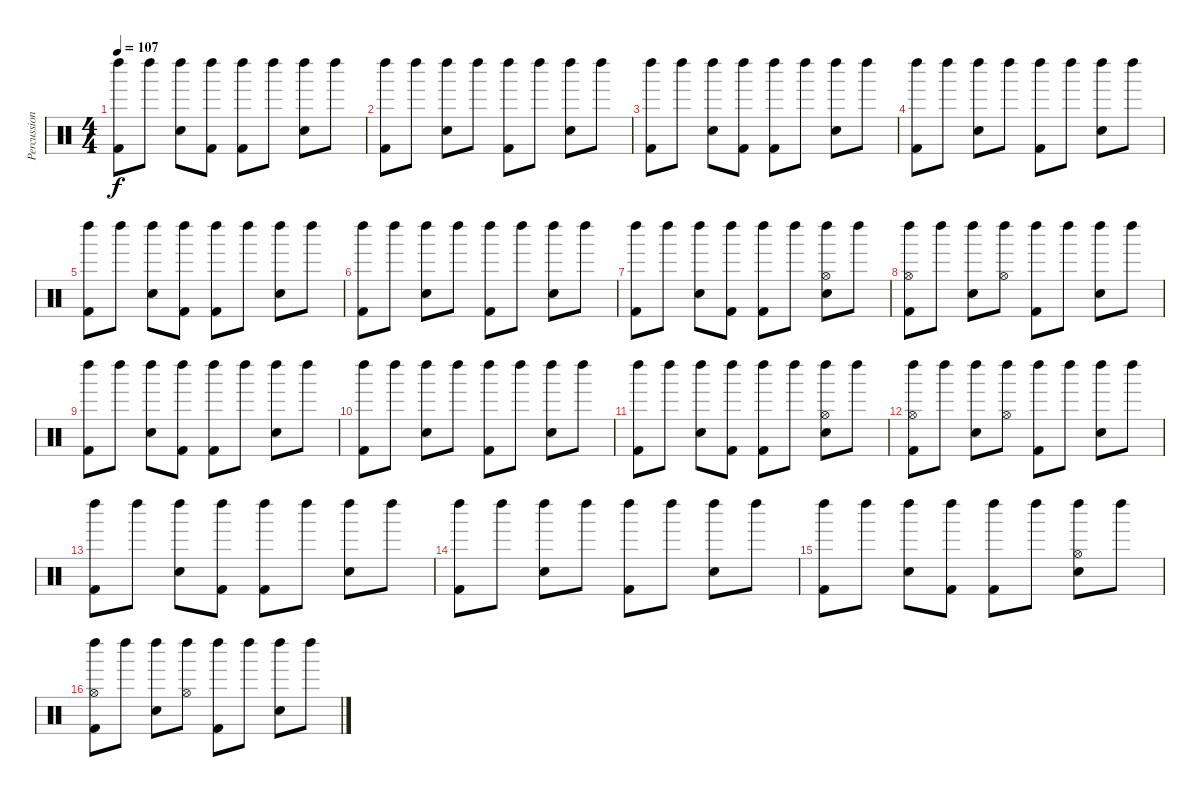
\track ("Percussion" "Percussion") {instrument percussion}
\staff {score}
\articulation defaults
\ts (4 4)
\tempo 107
\clef neutral
\ks c
("Kick (hit) 2" "Left Maraca (hit)").8{dy f} "Left Maraca (hit)".8 ("Snare (hit) 2" "Left Maraca (hit)").8 ("Kick (hit) 2" "Left Maraca (hit)").8 ("Kick (hit) 2" "Left Maraca (hit)").8 "Left Maraca (hit)".8 ("Snare (hit) 2" "Left Maraca (hit)").8 "Left Maraca (hit)".8 |
("Kick (hit) 2" "Left Maraca (hit)").8 "Left Maraca (hit)".8 ("Snare (hit) 2" "Left Maraca (hit)").8 "Left Maraca (hit)".8 ("Kick (hit) 2" "Left Maraca (hit)").8 "Left Maraca (hit)".8 ("Snare (hit) 2" "Left Maraca (hit)").8 "Left Maraca (hit)".8 |
("Kick (hit) 2" "Left Maraca (hit)").8 "Left Maraca (hit)".8 ("Snare (hit) 2" "Left Maraca (hit)").8 ("Kick (hit) 2" "Left Maraca (hit)").8 ("Kick (hit) 2" "Left Maraca (hit)").8 "Left Maraca (hit)".8 ("Snare (hit) 2" "Left Maraca (hit)").8 "Left Maraca (hit)".8 |
("Kick (hit) 2" "Left Maraca (hit)").8 "Left Maraca (hit)".8 ("Snare (hit) 2" "Left Maraca (hit)").8 "Left Maraca (hit)".8 ("Kick (hit) 2" "Left Maraca (hit)").8 "Left Maraca (hit)".8 ("Snare (hit) 2" "Left Maraca (hit)").8 "Left Maraca (hit)".8 |
("Kick (hit) 2" "Left Maraca (hit)").8 "Left Maraca (hit)".8 ("Snare (hit) 2" "Left Maraca (hit)").8 ("Kick (hit) 2" "Left Maraca (hit)").8 ("Kick (hit) 2" "Left Maraca (hit)").8 "Left Maraca (hit)".8 ("Snare (hit) 2" "Left Maraca (hit)").8 "Left Maraca (hit)".8 |
("Kick (hit) 2" "Left Maraca (hit)").8 "Left Maraca (hit)".8 ("Snare (hit) 2" "Left Maraca (hit)").8 "Left Maraca (hit)".8 ("Kick (hit) 2" "Left Maraca (hit)").8 "Left Maraca (hit)".8 ("Snare (hit) 2" "Left Maraca (hit)").8 "Left Maraca (hit)".8 |
("Kick (hit) 2" "Left Maraca (hit)").8 "Left Maraca (hit)".8 ("Snare (hit) 2" "Left Maraca (hit)").8 ("Kick (hit) 2" "Left Maraca (hit)").8 ("Kick (hit) 2" "Left Maraca (hit)").8 "Left Maraca (hit)".8 ("Snare (hit) 2" "Left Maraca (hit)" "Hi-Hat (open)").8 "Left Maraca (hit)".8 |
("Kick (hit) 2" "Left Maraca (hit)" "Hi-Hat (open)").8 "Left Maraca (hit)".8 ("Snare (hit) 2" "Left Maraca (hit)").8 ("Left Maraca (hit)" "Hi-Hat (open)").8 ("Kick (hit) 2" "Left Maraca (hit)").8 "Left Maraca (hit)".8 ("Snare (hit) 2" "Left Maraca (hit)").8 "Left Maraca (hit)".8 |
("Kick (hit) 2" "Left Maraca (hit)").8 "Left Maraca (hit)".8 ("Snare (hit) 2" "Left Maraca (hit)").8 ("Kick (hit) 2" "Left Maraca (hit)").8 ("Kick (hit) 2" "Left Maraca (hit)").8 "Left Maraca (hit)".8 ("Snare (hit) 2" "Left Maraca (hit)").8 "Left Maraca (hit)".8 |
("Kick (hit) 2" "Left Maraca (hit)").8 "Left Maraca (hit)".8 ("Snare (hit) 2" "Left Maraca (hit)").8 "Left Maraca (hit)".8 ("Kick (hit) 2" "Left Maraca (hit)").8 "Left Maraca (hit)".8 ("Snare (hit) 2" "Left Maraca (hit)").8 "Left Maraca (hit)".8 |
("Kick (hit) 2" "Left Maraca (hit)").8 "Left Maraca (hit)".8 ("Snare (hit) 2" "Left Maraca (hit)").8 ("Kick (hit) 2" "Left Maraca (hit)").8 ("Kick (hit) 2" "Left Maraca (hit)").8 "Left Maraca (hit)".8 ("Snare (hit) 2" "Left Maraca (hit)" "Hi-Hat (open)").8 "Left Maraca (hit)".8 |
("Kick (hit) 2" "Left Maraca (hit)" "Hi-Hat (open)").8 "Left Maraca (hit)".8 ("Snare (hit) 2" "Left Maraca (hit)").8 ("Left Maraca (hit)" "Hi-Hat (open)").8 ("Kick (hit) 2" "Left Maraca (hit)").8 "Left Maraca (hit)".8 ("Snare (hit) 2" "Left Maraca (hit)").8 "Left Maraca (hit)".8 |
("Kick (hit) 2" "Left Maraca (hit)").8 "Left Maraca (hit)".8 ("Snare (hit) 2" "Left Maraca (hit)").8 ("Kick (hit) 2" "Left Maraca (hit)").8 ("Kick (hit) 2" "Left Maraca (hit)").8 "Left Maraca (hit)".8 ("Snare (hit) 2" "Left Maraca (hit)").8 "Left Maraca (hit)".8 |
("Kick (hit) 2" "Left Maraca (hit)").8 "Left Maraca (hit)".8 ("Snare (hit) 2" "Left Maraca (hit)").8 "Left Maraca (hit)".8 ("Kick (hit) 2" "Left Maraca (hit)").8 "Left Maraca (hit)".8 ("Snare (hit) 2" "Left Maraca (hit)").8 "Left Maraca (hit)".8 |
("Kick (hit) 2" "Left Maraca (hit)").8 "Left Maraca (hit)".8 ("Snare (hit) 2" "Left Maraca (hit)").8 ("Kick (hit) 2" "Left Maraca (hit)").8 ("Kick (hit) 2" "Left Maraca (hit)").8 "Left Maraca (hit)".8 ("Snare (hit) 2" "Left Maraca (hit)" "Hi-Hat (open)").8 "Left Maraca (hit)".8 |
("Kick (hit) 2" "Left Maraca (hit)" "Hi-Hat (open)").8 "Left Maraca (hit)".8 ("Snare (hit) 2" "Left Maraca (hit)").8 ("Left Maraca (hit)" "Hi-Hat (open)").8 ("Kick (hit) 2" "Left Maraca (hit)").8 "Left Maraca (hit)".8 ("Snare (hit) 2" "Left Maraca (hit)").8 "Left Maraca (hit)".8
